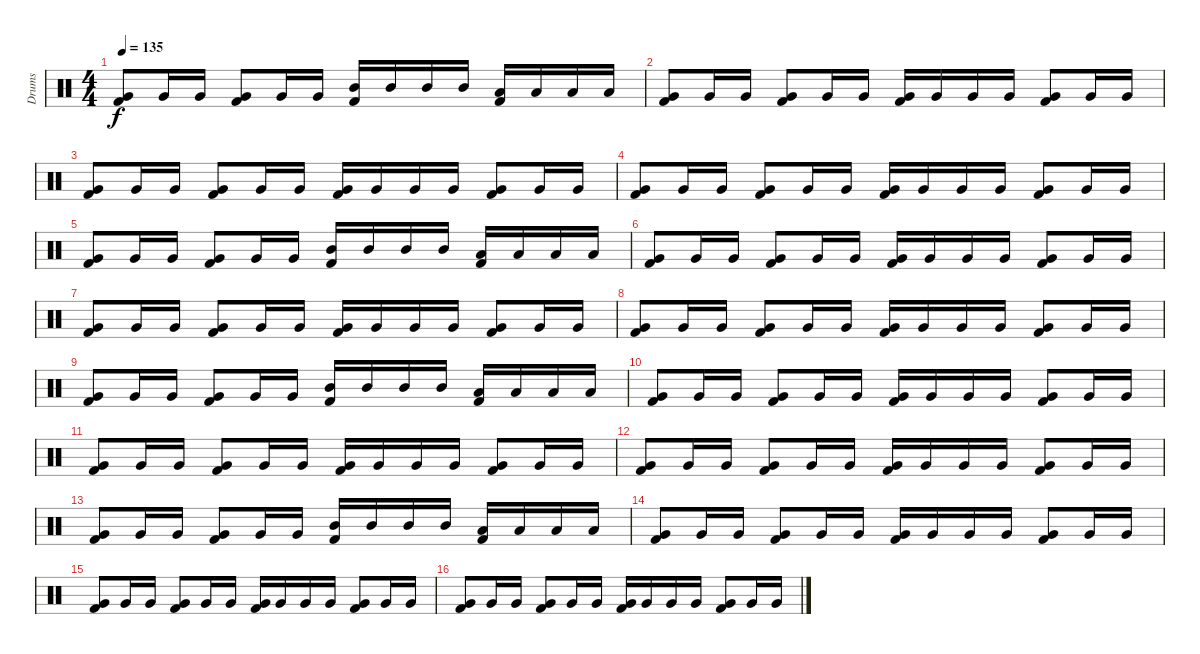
\track ("Drums" "Drums") {instrument percussion}
\staff {score}
\articulation defaults
\ts (4 4)
\tempo 135
\clef neutral
\ks c
("Very Low Tom (hit)" "Kick (hit) 2").8{dy f} "Very Low Tom (hit)".16 "Very Low Tom (hit)".16 ("Very Low Tom (hit)" "Kick (hit) 2").8 "Very Low Tom (hit)".16 "Very Low Tom (hit)".16 ("Mid Tom (hit)" "Kick (hit) 2").16 "Mid Tom (hit)".16 "Mid Tom (hit)".16 "Mid Tom (hit)".16 ("Low Tom (hit)" "Kick (hit) 2").16 "Low Tom (hit)".16 "Low Tom (hit)".16 "Low Tom (hit)".16 |
("Very Low Tom (hit)" "Kick (hit) 2").8 "Very Low Tom (hit)".16 "Very Low Tom (hit)".16 ("Very Low Tom (hit)" "Kick (hit) 2").8 "Very Low Tom (hit)".16 "Very Low Tom (hit)".16 ("Very Low Tom (hit)" "Kick (hit) 2").16 "Very Low Tom (hit)".16 "Very Low Tom (hit)".16 "Very Low Tom (hit)".16 ("Very Low Tom (hit)" "Kick (hit) 2").8 "Very Low Tom (hit)".16 "Very Low Tom (hit)".16 |
("Very Low Tom (hit)" "Kick (hit) 2").8 "Very Low Tom (hit)".16 "Very Low Tom (hit)".16 ("Very Low Tom (hit)" "Kick (hit) 2").8 "Very Low Tom (hit)".16 "Very Low Tom (hit)".16 ("Very Low Tom (hit)" "Kick (hit) 2").16 "Very Low Tom (hit)".16 "Very Low Tom (hit)".16 "Very Low Tom (hit)".16 ("Very Low Tom (hit)" "Kick (hit) 2").8 "Very Low Tom (hit)".16 "Very Low Tom (hit)".16 |
("Very Low Tom (hit)" "Kick (hit) 2").8 "Very Low Tom (hit)".16 "Very Low Tom (hit)".16 ("Very Low Tom (hit)" "Kick (hit) 2").8 "Very Low Tom (hit)".16 "Very Low Tom (hit)".16 ("Very Low Tom (hit)" "Kick (hit) 2").16 "Very Low Tom (hit)".16 "Very Low Tom (hit)".16 "Very Low Tom (hit)".16 ("Very Low Tom (hit)" "Kick (hit) 2").8 "Very Low Tom (hit)".16 "Very Low Tom (hit)".16 |
("Very Low Tom (hit)" "Kick (hit) 2").8 "Very Low Tom (hit)".16 "Very Low Tom (hit)".16 ("Very Low Tom (hit)" "Kick (hit) 2").8 "Very Low Tom (hit)".16 "Very Low Tom (hit)".16 ("Mid Tom (hit)" "Kick (hit) 2").16 "Mid Tom (hit)".16 "Mid Tom (hit)".16 "Mid Tom (hit)".16 ("Low Tom (hit)" "Kick (hit) 2").16 "Low Tom (hit)".16 "Low Tom (hit)".16 "Low Tom (hit)".16 |
("Very Low Tom (hit)" "Kick (hit) 2").8 "Very Low Tom (hit)".16 "Very Low Tom (hit)".16 ("Very Low Tom (hit)" "Kick (hit) 2").8 "Very Low Tom (hit)".16 "Very Low Tom (hit)".16 ("Very Low Tom (hit)" "Kick (hit) 2").16 "Very Low Tom (hit)".16 "Very Low Tom (hit)".16 "Very Low Tom (hit)".16 ("Very Low Tom (hit)" "Kick (hit) 2").8 "Very Low Tom (hit)".16 "Very Low Tom (hit)".16 |
("Very Low Tom (hit)" "Kick (hit) 2").8 "Very Low Tom (hit)".16 "Very Low Tom (hit)".16 ("Very Low Tom (hit)" "Kick (hit) 2").8 "Very Low Tom (hit)".16 "Very Low Tom (hit)".16 ("Very Low Tom (hit)" "Kick (hit) 2").16 "Very Low Tom (hit)".16 "Very Low Tom (hit)".16 "Very Low Tom (hit)".16 ("Very Low Tom (hit)" "Kick (hit) 2").8 "Very Low Tom (hit)".16 "Very Low Tom (hit)".16 |
("Very Low Tom (hit)" "Kick (hit) 2").8 "Very Low Tom (hit)".16 "Very Low Tom (hit)".16 ("Very Low Tom (hit)" "Kick (hit) 2").8 "Very Low Tom (hit)".16 "Very Low Tom (hit)".16 ("Very Low Tom (hit)" "Kick (hit) 2").16 "Very Low Tom (hit)".16 "Very Low Tom (hit)".16 "Very Low Tom (hit)".16 ("Very Low Tom (hit)" "Kick (hit) 2").8 "Very Low Tom (hit)".16 "Very Low Tom (hit)".16 |
("Very Low Tom (hit)" "Kick (hit) 2").8 "Very Low Tom (hit)".16 "Very Low Tom (hit)".16 ("Very Low Tom (hit)" "Kick (hit) 2").8 "Very Low Tom (hit)".16 "Very Low Tom (hit)".16 ("Mid Tom (hit)" "Kick (hit) 2").16 "Mid Tom (hit)".16 "Mid Tom (hit)".16 "Mid Tom (hit)".16 ("Low Tom (hit)" "Kick (hit) 2").16 "Low Tom (hit)".16 "Low Tom (hit)".16 "Low Tom (hit)".16 |
("Very Low Tom (hit)" "Kick (hit) 2").8 "Very Low Tom (hit)".16 "Very Low Tom (hit)".16 ("Very Low Tom (hit)" "Kick (hit) 2").8 "Very Low Tom (hit)".16 "Very Low Tom (hit)".16 ("Very Low Tom (hit)" "Kick (hit) 2").16 "Very Low Tom (hit)".16 "Very Low Tom (hit)".16 "Very Low Tom (hit)".16 ("Very Low Tom (hit)" "Kick (hit) 2").8 "Very Low Tom (hit)".16 "Very Low Tom (hit)".16 |
("Very Low Tom (hit)" "Kick (hit) 2").8 "Very Low Tom (hit)".16 "Very Low Tom (hit)".16 ("Very Low Tom (hit)" "Kick (hit) 2").8 "Very Low Tom (hit)".16 "Very Low Tom (hit)".16 ("Very Low Tom (hit)" "Kick (hit) 2").16 "Very Low Tom (hit)".16 "Very Low Tom (hit)".16 "Very Low Tom (hit)".16 ("Very Low Tom (hit)" "Kick (hit) 2").8 "Very Low Tom (hit)".16 "Very Low Tom (hit)".16 |
("Very Low Tom (hit)" "Kick (hit) 2").8 "Very Low Tom (hit)".16 "Very Low Tom (hit)".16 ("Very Low Tom (hit)" "Kick (hit) 2").8 "Very Low Tom (hit)".16 "Very Low Tom (hit)".16 ("Very Low Tom (hit)" "Kick (hit) 2").16 "Very Low Tom (hit)".16 "Very Low Tom (hit)".16 "Very Low Tom (hit)".16 ("Very Low Tom (hit)" "Kick (hit) 2").8 "Very Low Tom (hit)".16 "Very Low Tom (hit)".16 |
("Very Low Tom (hit)" "Kick (hit) 2").8 "Very Low Tom (hit)".16 "Very Low Tom (hit)".16 ("Very Low Tom (hit)" "Kick (hit) 2").8 "Very Low Tom (hit)".16 "Very Low Tom (hit)".16 ("Mid Tom (hit)" "Kick (hit) 2").16 "Mid Tom (hit)".16 "Mid Tom (hit)".16 "Mid Tom (hit)".16 ("Low Tom (hit)" "Kick (hit) 2").16 "Low Tom (hit)".16 "Low Tom (hit)".16 "Low Tom (hit)".16 |
("Very Low Tom (hit)" "Kick (hit) 2").8 "Very Low Tom (hit)".16 "Very Low Tom (hit)".16 ("Very Low Tom (hit)" "Kick (hit) 2").8 "Very Low Tom (hit)".16 "Very Low Tom (hit)".16 ("Very Low Tom (hit)" "Kick (hit) 2").16 "Very Low Tom (hit)".16 "Very Low Tom (hit)".16 "Very Low Tom (hit)".16 ("Very Low Tom (hit)" "Kick (hit) 2").8 "Very Low Tom (hit)".16 "Very Low Tom (hit)".16 |
("Very Low Tom (hit)" "Kick (hit) 2").8 "Very Low Tom (hit)".16 "Very Low Tom (hit)".16 ("Very Low Tom (hit)" "Kick (hit) 2").8 "Very Low Tom (hit)".16 "Very Low Tom (hit)".16 ("Very Low Tom (hit)" "Kick (hit) 2").16 "Very Low Tom (hit)".16 "Very Low Tom (hit)".16 "Very Low Tom (hit)".16 ("Very Low Tom (hit)" "Kick (hit) 2").8 "Very Low Tom (hit)".16 "Very Low Tom (hit)".16 |
("Very Low Tom (hit)" "Kick (hit) 2").8 "Very Low Tom (hit)".16 "Very Low Tom (hit)".16 ("Very Low Tom (hit)" "Kick (hit) 2").8 "Very Low Tom (hit)".16 "Very Low Tom (hit)".16 ("Very Low Tom (hit)" "Kick (hit) 2").16 "Very Low Tom (hit)".16 "Very Low Tom (hit)".16 "Very Low Tom (hit)".16 ("Very Low Tom (hit)" "Kick (hit) 2").8 "Very Low Tom (hit)".16 "Very Low Tom (hit)".16
